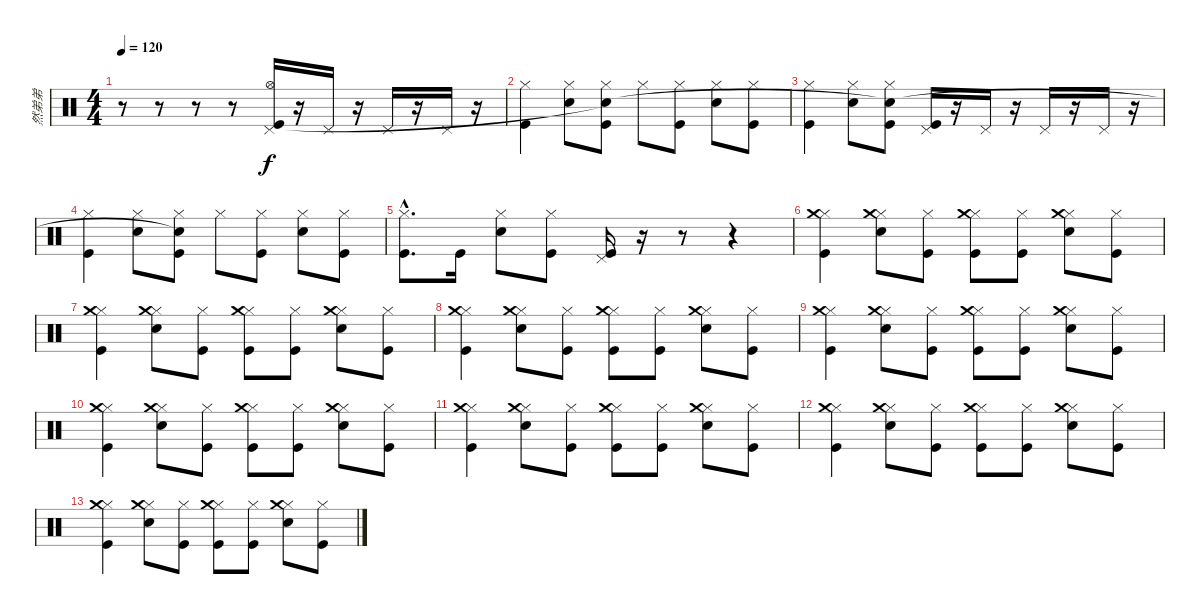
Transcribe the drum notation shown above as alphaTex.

\track ("然弟弟" "然弟弟") {instrument percussion}
\staff {score}
\articulation defaults
\ts (4 4)
\tempo 120
\clef neutral
\ks c
r.8{dy f} r.8 r.8 r.8 ("Pedal Hi-Hat (hit)" "Hi-Hat (open)" "Kick (hit)").16 r.16 "Pedal Hi-Hat (hit)".16 r.16 "Pedal Hi-Hat (hit)".16 r.16 "Pedal Hi-Hat (hit)".16 r.16 |
("Hi-Hat (closed)" "Kick (hit)").4 ("Hi-Hat (closed)" "Electric Snare (hit)").8 ("Hi-Hat (closed)" "Kick (hit)" "Snare (hit)"{t}).8 "Hi-Hat (closed)".8 ("Hi-Hat (closed)" "Kick (hit)").8 ("Hi-Hat (closed)" "Electric Snare (hit)").8 ("Hi-Hat (closed)" "Kick (hit)").8 |
("Hi-Hat (closed)" "Kick (hit)").4 ("Hi-Hat (closed)" "Electric Snare (hit)").8 ("Hi-Hat (closed)" "Kick (hit)" "Snare (hit)"{t}).8 ("Pedal Hi-Hat (hit)" "Kick (hit)").16 r.16 "Pedal Hi-Hat (hit)".16 r.16 "Pedal Hi-Hat (hit)".16 r.16 "Pedal Hi-Hat (hit)".16 r.16 |
("Hi-Hat (closed)" "Kick (hit)").4 ("Hi-Hat (closed)" "Electric Snare (hit)").8 ("Hi-Hat (closed)" "Kick (hit)" "Snare (hit)"{t}).8 "Hi-Hat (closed)".8 ("Hi-Hat (closed)" "Kick (hit)").8 ("Hi-Hat (closed)" "Electric Snare (hit)").8 ("Hi-Hat (closed)" "Kick (hit)").8 |
("Hi-Hat (closed)"{hac} "Kick (hit)"{hac}).8{d} "Kick (hit)".16 ("Hi-Hat (closed)" "Electric Snare (hit)").8 ("Hi-Hat (closed)" "Kick (hit)").8 ("Pedal Hi-Hat (hit)" "Kick (hit)").16 r.16 r.8 r.4 |
("Hi-Hat (closed)" "Crash medium (hit)" "Kick (hit)").4 ("Hi-Hat (closed)" "Crash medium (hit)" "Electric Snare (hit)").8 ("Hi-Hat (closed)" "Kick (hit)").8 ("Hi-Hat (closed)" "Crash medium (hit)" "Kick (hit)").8 ("Hi-Hat (closed)" "Kick (hit)").8 ("Hi-Hat (closed)" "Crash medium (hit)" "Electric Snare (hit)").8 ("Hi-Hat (closed)" "Kick (hit)").8 |
("Hi-Hat (closed)" "Crash medium (hit)" "Kick (hit)").4 ("Hi-Hat (closed)" "Crash medium (hit)" "Electric Snare (hit)").8 ("Hi-Hat (closed)" "Kick (hit)").8 ("Hi-Hat (closed)" "Crash medium (hit)" "Kick (hit)").8 ("Hi-Hat (closed)" "Kick (hit)").8 ("Hi-Hat (closed)" "Crash medium (hit)" "Electric Snare (hit)").8 ("Hi-Hat (closed)" "Kick (hit)").8 |
("Hi-Hat (closed)" "Crash medium (hit)" "Kick (hit)").4 ("Hi-Hat (closed)" "Crash medium (hit)" "Electric Snare (hit)").8 ("Hi-Hat (closed)" "Kick (hit)").8 ("Hi-Hat (closed)" "Crash medium (hit)" "Kick (hit)").8 ("Hi-Hat (closed)" "Kick (hit)").8 ("Hi-Hat (closed)" "Crash medium (hit)" "Electric Snare (hit)").8 ("Hi-Hat (closed)" "Kick (hit)").8 |
("Hi-Hat (closed)" "Crash medium (hit)" "Kick (hit)").4 ("Hi-Hat (closed)" "Crash medium (hit)" "Electric Snare (hit)").8 ("Hi-Hat (closed)" "Kick (hit)").8 ("Hi-Hat (closed)" "Crash medium (hit)" "Kick (hit)").8 ("Hi-Hat (closed)" "Kick (hit)").8 ("Hi-Hat (closed)" "Crash medium (hit)" "Electric Snare (hit)").8 ("Hi-Hat (closed)" "Kick (hit)").8 |
("Hi-Hat (closed)" "Crash medium (hit)" "Kick (hit)").4 ("Hi-Hat (closed)" "Crash medium (hit)" "Electric Snare (hit)").8 ("Hi-Hat (closed)" "Kick (hit)").8 ("Hi-Hat (closed)" "Crash medium (hit)" "Kick (hit)").8 ("Hi-Hat (closed)" "Kick (hit)").8 ("Hi-Hat (closed)" "Crash medium (hit)" "Electric Snare (hit)").8 ("Hi-Hat (closed)" "Kick (hit)").8 |
("Hi-Hat (closed)" "Crash medium (hit)" "Kick (hit)").4 ("Hi-Hat (closed)" "Crash medium (hit)" "Electric Snare (hit)").8 ("Hi-Hat (closed)" "Kick (hit)").8 ("Hi-Hat (closed)" "Crash medium (hit)" "Kick (hit)").8 ("Hi-Hat (closed)" "Kick (hit)").8 ("Hi-Hat (closed)" "Crash medium (hit)" "Electric Snare (hit)").8 ("Hi-Hat (closed)" "Kick (hit)").8 |
("Hi-Hat (closed)" "Crash medium (hit)" "Kick (hit)").4 ("Hi-Hat (closed)" "Crash medium (hit)" "Electric Snare (hit)").8 ("Hi-Hat (closed)" "Kick (hit)").8 ("Hi-Hat (closed)" "Crash medium (hit)" "Kick (hit)").8 ("Hi-Hat (closed)" "Kick (hit)").8 ("Hi-Hat (closed)" "Crash medium (hit)" "Electric Snare (hit)").8 ("Hi-Hat (closed)" "Kick (hit)").8 |
("Hi-Hat (closed)" "Crash medium (hit)" "Kick (hit)").4 ("Hi-Hat (closed)" "Crash medium (hit)" "Electric Snare (hit)").8 ("Hi-Hat (closed)" "Kick (hit)").8 ("Hi-Hat (closed)" "Crash medium (hit)" "Kick (hit)").8 ("Hi-Hat (closed)" "Kick (hit)").8 ("Hi-Hat (closed)" "Crash medium (hit)" "Electric Snare (hit)").8 ("Hi-Hat (closed)" "Kick (hit)").8
